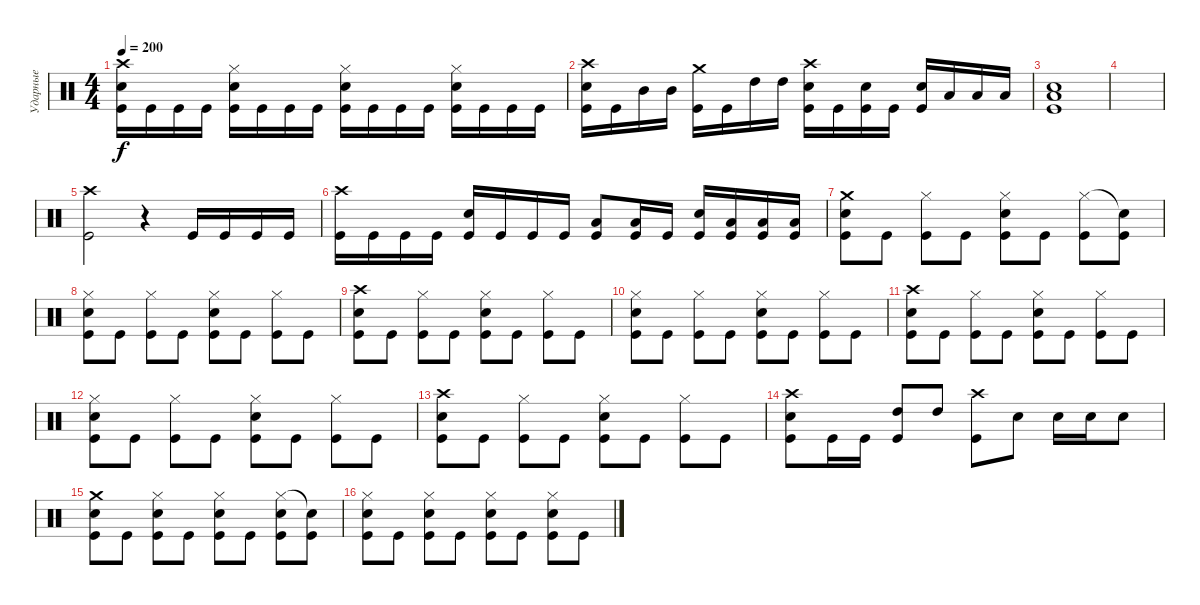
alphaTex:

\track ("Ударные" "Ударные") {instrument percussion}
\staff {score}
\articulation defaults
\ts (4 4)
\tempo 200
\clef neutral
\ks c
("Crash high (hit)" "Electric Snare (hit)" "Kick (hit)").16{dy f} "Kick (hit)".16 "Kick (hit)".16 "Kick (hit)".16 ("Hi-Hat (closed)" "Electric Snare (hit)" "Kick (hit)").16 "Kick (hit)".16 "Kick (hit)".16 "Kick (hit)".16 ("Hi-Hat (closed)" "Electric Snare (hit)" "Kick (hit)").16 "Kick (hit)".16 "Kick (hit)".16 "Kick (hit)".16 ("Hi-Hat (closed)" "Electric Snare (hit)" "Kick (hit)").16 "Kick (hit)".16 "Kick (hit)".16 "Kick (hit)".16 |
("Crash high (hit)" "Electric Snare (hit)" "Kick (hit)").16 "Kick (hit)".16 "Mid Tom (hit)".16 "Mid Tom (hit)".16 ("Crash medium (hit)" "Kick (hit)").16 "Kick (hit)".16 "High Tom (hit)".16 "High Tom (hit)".16 ("Crash high (hit)" "Electric Snare (hit)" "Kick (hit)").16 "Kick (hit)".16 ("Electric Snare (hit)" "Kick (hit)").16 "Kick (hit)".16 ("Electric Snare (hit)" "Kick (hit)").16 "Low Tom (hit)".16 "Low Tom (hit)".16 "Low Tom (hit)".16 |
("Low Tom (hit)" "Electric Snare (hit)" "Kick (hit)").1 |
|
("Crash high (hit)" "Kick (hit)").2 r.4 "Kick (hit)".16 "Kick (hit)".16 "Kick (hit)".16 "Kick (hit)".16 |
("Crash high (hit)" "Kick (hit)").16 "Kick (hit)".16 "Kick (hit)".16 "Kick (hit)".16 ("Electric Snare (hit)" "Kick (hit)").16 "Kick (hit)".16 "Kick (hit)".16 "Kick (hit)".16 ("Low Tom (hit)" "Kick (hit)").8 ("Low Tom (hit)" "Kick (hit)").16 "Kick (hit)".16 ("Electric Snare (hit)" "Kick (hit)").16 ("Low Tom (hit)" "Kick (hit)").16 ("Low Tom (hit)" "Kick (hit)").16 ("Low Tom (hit)" "Kick (hit)").16 |
("Crash medium (hit)" "Electric Snare (hit)" "Kick (hit)").8 "Kick (hit)".8 ("Hi-Hat (closed)" "Kick (hit)").8 "Kick (hit)".8 ("Hi-Hat (closed)" "Electric Snare (hit)" "Kick (hit)").8 "Kick (hit)".8 ("Hi-Hat (closed)" "Kick (hit)").8 ("Snare (hit)"{t} "Kick (hit)").8 |
("Hi-Hat (closed)" "Electric Snare (hit)" "Kick (hit)").8 "Kick (hit)".8 ("Hi-Hat (closed)" "Kick (hit)").8 "Kick (hit)".8 ("Hi-Hat (closed)" "Electric Snare (hit)" "Kick (hit)").8 "Kick (hit)".8 ("Hi-Hat (closed)" "Kick (hit)").8 "Kick (hit)".8 |
("Crash high (hit)" "Electric Snare (hit)" "Kick (hit)").8 "Kick (hit)".8 ("Hi-Hat (closed)" "Kick (hit)").8 "Kick (hit)".8 ("Hi-Hat (closed)" "Electric Snare (hit)" "Kick (hit)").8 "Kick (hit)".8 ("Hi-Hat (closed)" "Kick (hit)").8 "Kick (hit)".8 |
("Hi-Hat (closed)" "Electric Snare (hit)" "Kick (hit)").8 "Kick (hit)".8 ("Hi-Hat (closed)" "Kick (hit)").8 "Kick (hit)".8 ("Hi-Hat (closed)" "Electric Snare (hit)" "Kick (hit)").8 "Kick (hit)".8 ("Hi-Hat (closed)" "Kick (hit)").8 "Kick (hit)".8 |
("Crash high (hit)" "Electric Snare (hit)" "Kick (hit)").8 "Kick (hit)".8 ("Hi-Hat (closed)" "Kick (hit)").8 "Kick (hit)".8 ("Hi-Hat (closed)" "Electric Snare (hit)" "Kick (hit)").8 "Kick (hit)".8 ("Hi-Hat (closed)" "Kick (hit)").8 "Kick (hit)".8 |
("Hi-Hat (closed)" "Electric Snare (hit)" "Kick (hit)").8 "Kick (hit)".8 ("Hi-Hat (closed)" "Kick (hit)").8 "Kick (hit)".8 ("Hi-Hat (closed)" "Electric Snare (hit)" "Kick (hit)").8 "Kick (hit)".8 ("Hi-Hat (closed)" "Kick (hit)").8 "Kick (hit)".8 |
("Crash high (hit)" "Electric Snare (hit)" "Kick (hit)").8 "Kick (hit)".8 ("Hi-Hat (closed)" "Kick (hit)").8 "Kick (hit)".8 ("Hi-Hat (closed)" "Electric Snare (hit)" "Kick (hit)").8 "Kick (hit)".8 ("Hi-Hat (closed)" "Kick (hit)").8 "Kick (hit)".8 |
("Crash high (hit)" "Electric Snare (hit)" "Kick (hit)").8 "Kick (hit)".16 "Kick (hit)".16 ("High Tom (hit)" "Kick (hit)").8 "High Tom (hit)".8 ("Crash high (hit)" "Kick (hit)").8 "Electric Snare (hit)".8 "Electric Snare (hit)".16 "Electric Snare (hit)".16 "Electric Snare (hit)".8 |
("Crash medium (hit)" "Electric Snare (hit)" "Kick (hit)").8 "Kick (hit)".8 ("Hi-Hat (closed)" "Electric Snare (hit)" "Kick (hit)").8 "Kick (hit)".8 ("Hi-Hat (closed)" "Electric Snare (hit)" "Kick (hit)").8 "Kick (hit)".8 ("Hi-Hat (closed)" "Electric Snare (hit)" "Kick (hit)").8 ("Snare (hit)"{t} "Kick (hit)").8 |
("Hi-Hat (closed)" "Electric Snare (hit)" "Kick (hit)").8 "Kick (hit)".8 ("Hi-Hat (closed)" "Electric Snare (hit)" "Kick (hit)").8 "Kick (hit)".8 ("Hi-Hat (closed)" "Electric Snare (hit)" "Kick (hit)").8 "Kick (hit)".8 ("Hi-Hat (closed)" "Electric Snare (hit)" "Kick (hit)").8 "Kick (hit)".8
